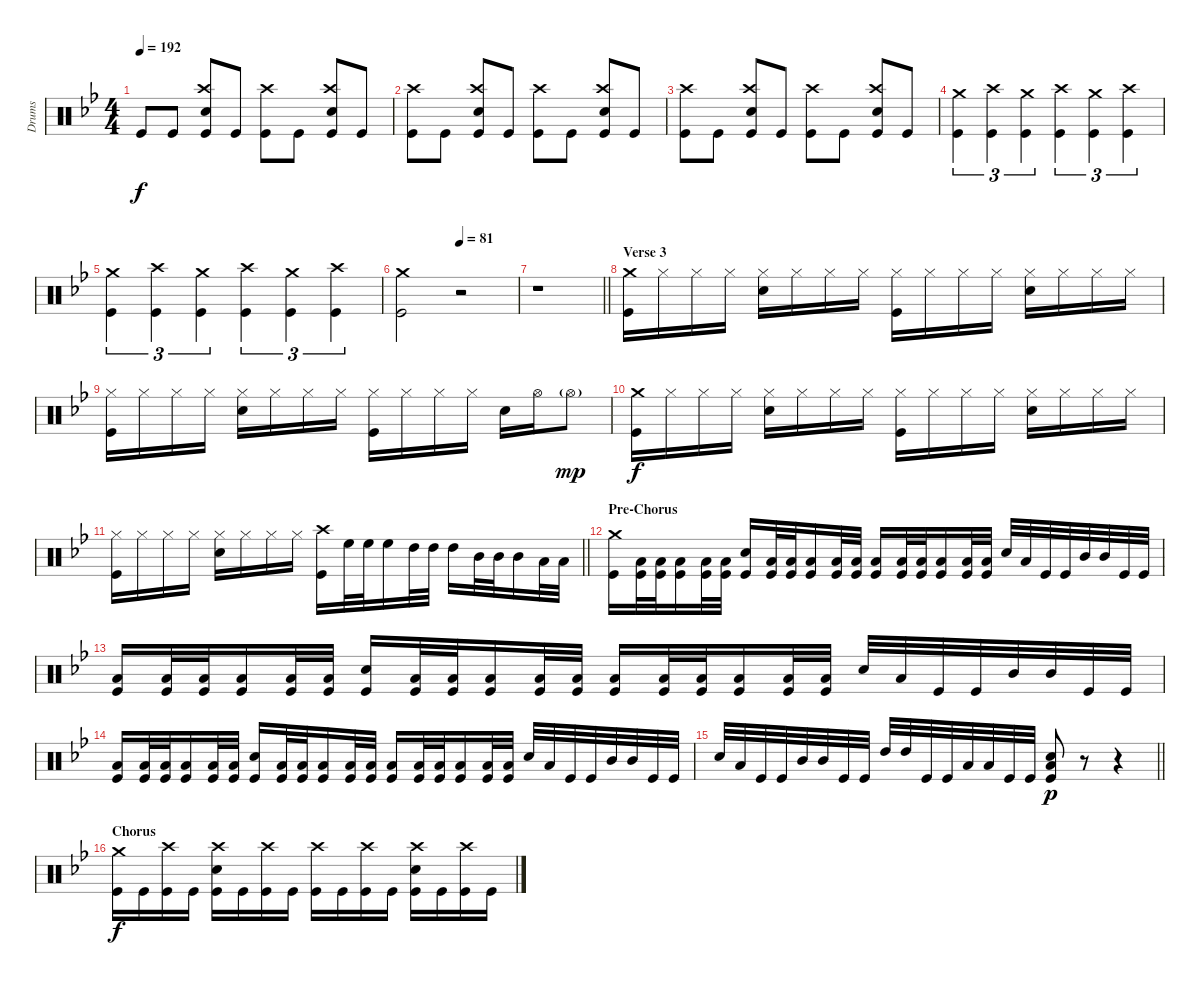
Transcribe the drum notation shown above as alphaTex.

\track ("Drums" "Drums") {instrument percussion}
\staff {score}
\articulation defaults
\ts (4 4)
\tempo 192
\clef neutral
\ks gminor "Kick (hit)".8{dy f} "Kick (hit)".8
("Crash high (hit)" "Electric Snare (hit)" "Kick (hit)").8 "Kick (hit)".8 ("Crash high (hit)" "Kick (hit)").8 "Kick (hit)".8 ("Crash high (hit)" "Electric Snare (hit)" "Kick (hit)").8 "Kick (hit)".8 |
("Crash high (hit)" "Kick (hit)").8 "Kick (hit)".8 ("Crash high (hit)" "Electric Snare (hit)" "Kick (hit)").8 "Kick (hit)".8 ("Crash high (hit)" "Kick (hit)").8 "Kick (hit)".8 ("Crash high (hit)" "Electric Snare (hit)" "Kick (hit)").8 "Kick (hit)".8 |
("Crash high (hit)" "Kick (hit)").8 "Kick (hit)".8 ("Crash high (hit)" "Electric Snare (hit)" "Kick (hit)").8 "Kick (hit)".8 ("Crash high (hit)" "Kick (hit)").8 "Kick (hit)".8 ("Crash high (hit)" "Electric Snare (hit)" "Kick (hit)").8 "Kick (hit)".8 |
("Crash medium (hit)" "Kick (hit)").4{tu (3 2)} ("Crash high (hit)" "Kick (hit)").4{tu (3 2)} ("Crash medium (hit)" "Kick (hit)").4{tu (3 2)} ("Crash high (hit)" "Kick (hit)").4{tu (3 2)} ("Crash medium (hit)" "Kick (hit)").4{tu (3 2)} ("Crash high (hit)" "Kick (hit)").4{tu (3 2)} |
("Crash medium (hit)" "Kick (hit)").4{tu (3 2)} ("Crash high (hit)" "Kick (hit)").4{tu (3 2)} ("Crash medium (hit)" "Kick (hit)").4{tu (3 2)} ("Crash high (hit)" "Kick (hit)").4{tu (3 2)} ("Crash medium (hit)" "Kick (hit)").4{tu (3 2)} ("Crash high (hit)" "Kick (hit)").4{tu (3 2)} |
\tempo (81 0.5)
("Crash medium (hit)" "Kick (hit)").2 r.2 |
\barLineRight lightlight
r.1 |
\section ("" "Verse 3")
("Crash medium (hit)" "Kick (hit)").16 "Hi-Hat (closed)".16 "Hi-Hat (closed)".16 "Hi-Hat (closed)".16 ("Hi-Hat (closed)" "Electric Snare (hit)").16 "Hi-Hat (closed)".16 "Hi-Hat (closed)".16 "Hi-Hat (closed)".16 ("Hi-Hat (closed)" "Kick (hit)").16 "Hi-Hat (closed)".16 "Hi-Hat (closed)".16 "Hi-Hat (closed)".16 ("Hi-Hat (closed)" "Electric Snare (hit)").16 "Hi-Hat (closed)".16 "Hi-Hat (closed)".16 "Hi-Hat (closed)".16 |
("Hi-Hat (closed)" "Kick (hit)").16 "Hi-Hat (closed)".16 "Hi-Hat (closed)".16 "Hi-Hat (closed)".16 ("Hi-Hat (closed)" "Electric Snare (hit)").16 "Hi-Hat (closed)".16 "Hi-Hat (closed)".16 "Hi-Hat (closed)".16 ("Hi-Hat (closed)" "Kick (hit)").16 "Hi-Hat (closed)".16 "Hi-Hat (closed)".16 "Hi-Hat (closed)".16 "Electric Snare (hit)".16 "Hi-Hat (open)".16 "Hi-Hat (open)"{g}.8{dy mp} |
("Crash medium (hit)" "Kick (hit)").16{dy f} "Hi-Hat (closed)".16 "Hi-Hat (closed)".16 "Hi-Hat (closed)".16 ("Hi-Hat (closed)" "Electric Snare (hit)").16 "Hi-Hat (closed)".16 "Hi-Hat (closed)".16 "Hi-Hat (closed)".16 ("Hi-Hat (closed)" "Kick (hit)").16 "Hi-Hat (closed)".16 "Hi-Hat (closed)".16 "Hi-Hat (closed)".16 ("Hi-Hat (closed)" "Electric Snare (hit)").16 "Hi-Hat (closed)".16 "Hi-Hat (closed)".16 "Hi-Hat (closed)".16 |
\barLineRight lightlight
("Hi-Hat (closed)" "Kick (hit)").16 "Hi-Hat (closed)".16 "Hi-Hat (closed)".16 "Hi-Hat (closed)".16 ("Hi-Hat (closed)" "Electric Snare (hit)").16 "Hi-Hat (closed)".16 "Hi-Hat (closed)".16 "Hi-Hat (closed)".16 ("Crash high (hit)" "Kick (hit)").16 "High Floor Tom (hit)".32 "High Floor Tom (hit)".32 "High Floor Tom (hit)".16 "High Tom (hit)".32 "High Tom (hit)".32 "High Tom (hit)".16 "Mid Tom (hit)".32 "Mid Tom (hit)".32 "Mid Tom (hit)".16 "Low Tom (hit)".32 "Low Tom (hit)".32 |
\section ("" "Pre-Chorus")
("Crash medium (hit)" "Kick (hit)").16 ("Low Tom (hit)" "Kick (hit)").32 ("Low Tom (hit)" "Kick (hit)").32 ("Low Tom (hit)" "Kick (hit)").16 ("Low Tom (hit)" "Kick (hit)").32 ("Low Tom (hit)" "Kick (hit)").32 ("Electric Snare (hit)" "Kick (hit)").16 ("Low Tom (hit)" "Kick (hit)").32 ("Low Tom (hit)" "Kick (hit)").32 ("Low Tom (hit)" "Kick (hit)").16 ("Low Tom (hit)" "Kick (hit)").32 ("Low Tom (hit)" "Kick (hit)").32 ("Low Tom (hit)" "Kick (hit)").16 ("Low Tom (hit)" "Kick (hit)").32 ("Low Tom (hit)" "Kick (hit)").32 ("Low Tom (hit)" "Kick (hit)").16 ("Low Tom (hit)" "Kick (hit)").32 ("Low Tom (hit)" "Kick (hit)").32 "Electric Snare (hit)".32 "Low Tom (hit)".32 "Kick (hit)".32 "Kick (hit)".32 "Mid Tom (hit)".32 "Mid Tom (hit)".32 "Kick (hit)".32 "Kick (hit)".32 |
("Low Tom (hit)" "Kick (hit)").16 ("Low Tom (hit)" "Kick (hit)").32 ("Low Tom (hit)" "Kick (hit)").32 ("Low Tom (hit)" "Kick (hit)").16 ("Low Tom (hit)" "Kick (hit)").32 ("Low Tom (hit)" "Kick (hit)").32 ("Electric Snare (hit)" "Kick (hit)").16 ("Low Tom (hit)" "Kick (hit)").32 ("Low Tom (hit)" "Kick (hit)").32 ("Low Tom (hit)" "Kick (hit)").16 ("Low Tom (hit)" "Kick (hit)").32 ("Low Tom (hit)" "Kick (hit)").32 ("Low Tom (hit)" "Kick (hit)").16 ("Low Tom (hit)" "Kick (hit)").32 ("Low Tom (hit)" "Kick (hit)").32 ("Low Tom (hit)" "Kick (hit)").16 ("Low Tom (hit)" "Kick (hit)").32 ("Low Tom (hit)" "Kick (hit)").32 "Electric Snare (hit)".32 "Low Tom (hit)".32 "Kick (hit)".32 "Kick (hit)".32 "Mid Tom (hit)".32 "Mid Tom (hit)".32 "Kick (hit)".32 "Kick (hit)".32 |
("Low Tom (hit)" "Kick (hit)").16 ("Low Tom (hit)" "Kick (hit)").32 ("Low Tom (hit)" "Kick (hit)").32 ("Low Tom (hit)" "Kick (hit)").16 ("Low Tom (hit)" "Kick (hit)").32 ("Low Tom (hit)" "Kick (hit)").32 ("Electric Snare (hit)" "Kick (hit)").16 ("Low Tom (hit)" "Kick (hit)").32 ("Low Tom (hit)" "Kick (hit)").32 ("Low Tom (hit)" "Kick (hit)").16 ("Low Tom (hit)" "Kick (hit)").32 ("Low Tom (hit)" "Kick (hit)").32 ("Low Tom (hit)" "Kick (hit)").16 ("Low Tom (hit)" "Kick (hit)").32 ("Low Tom (hit)" "Kick (hit)").32 ("Low Tom (hit)" "Kick (hit)").16 ("Low Tom (hit)" "Kick (hit)").32 ("Low Tom (hit)" "Kick (hit)").32 "Electric Snare (hit)".32 "Low Tom (hit)".32 "Kick (hit)".32 "Kick (hit)".32 "Mid Tom (hit)".32 "Mid Tom (hit)".32 "Kick (hit)".32 "Kick (hit)".32 |
\barLineRight lightlight "Electric Snare (hit)".32 "Low Tom (hit)".32 "Kick (hit)".32 "Kick (hit)".32 "Mid Tom (hit)".32 "Mid Tom (hit)".32 "Kick (hit)".32 "Kick (hit)".32 "High Tom (hit)".32 "High Tom (hit)".32 "Kick (hit)".32 "Kick (hit)".32 "Low Tom (hit)".32 "Low Tom (hit)".32 "Kick (hit)".32 "Kick (hit)".32
("Low Tom (hit)" "Electric Snare (hit)" "Kick (hit)").8{dy p} r.8 r.4 |
\section ("" "Chorus")
("Crash medium (hit)" "Kick (hit)").16{dy f} "Kick (hit)".16 ("Crash high (hit)" "Kick (hit)").16 "Kick (hit)".16 ("Crash high (hit)" "Electric Snare (hit)" "Kick (hit)").16 "Kick (hit)".16 ("Crash high (hit)" "Kick (hit)").16 "Kick (hit)".16 ("Crash high (hit)" "Kick (hit)").16 "Kick (hit)".16 ("Crash high (hit)" "Kick (hit)").16 "Kick (hit)".16 ("Crash high (hit)" "Electric Snare (hit)" "Kick (hit)").16 "Kick (hit)".16 ("Crash high (hit)" "Kick (hit)").16 "Kick (hit)".16
